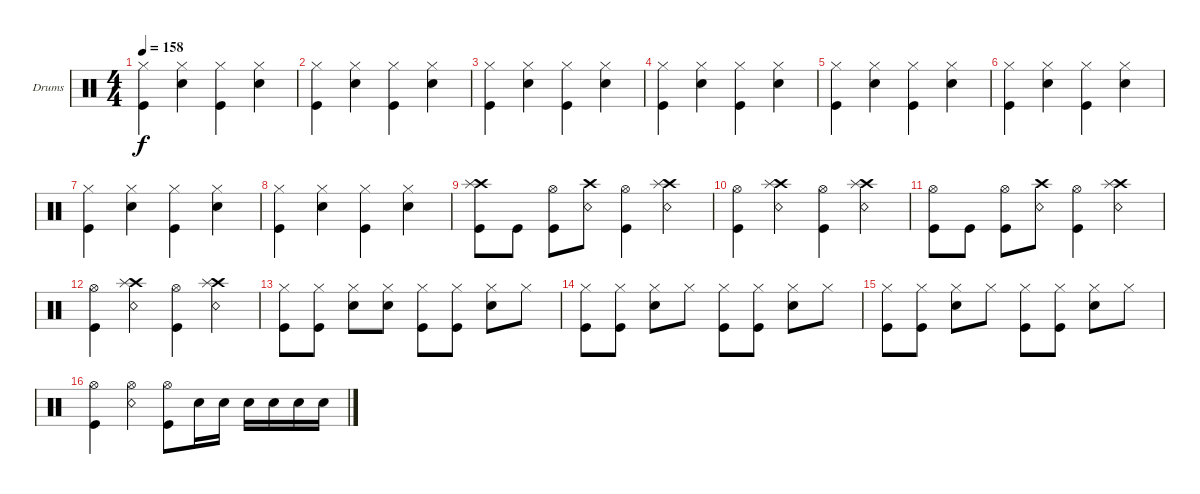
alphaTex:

\bracketExtendMode groupsimilarinstruments
\firstSystemTrackNameOrientation horizontal
\otherSystemsTrackNameOrientation horizontal
\track ("Drumkit" "Drums") {instrument percussion}
\staff {score}
\articulation defaults
\ts (4 4)
\tempo 158
\clef neutral
\ks c
("Hi-Hat (closed)" "Kick (hit)").4{dy f} ("Hi-Hat (closed)" "Snare (hit) 2").4 ("Hi-Hat (closed)" "Kick (hit)").4 ("Hi-Hat (closed)" "Snare (hit) 2").4 |
("Hi-Hat (closed)" "Kick (hit)").4 ("Hi-Hat (closed)" "Snare (hit) 2").4 ("Hi-Hat (closed)" "Kick (hit)").4 ("Hi-Hat (closed)" "Snare (hit) 2").4 |
("Hi-Hat (closed)" "Kick (hit)").4 ("Hi-Hat (closed)" "Snare (hit) 2").4 ("Hi-Hat (closed)" "Kick (hit)").4 ("Hi-Hat (closed)" "Snare (hit) 2").4 |
("Hi-Hat (closed)" "Kick (hit)").4 ("Hi-Hat (closed)" "Snare (hit) 2").4 ("Hi-Hat (closed)" "Kick (hit)").4 ("Hi-Hat (closed)" "Snare (hit) 2").4 |
("Hi-Hat (closed)" "Kick (hit)").4 ("Hi-Hat (closed)" "Snare (hit) 2").4 ("Hi-Hat (closed)" "Kick (hit)").4 ("Hi-Hat (closed)" "Snare (hit) 2").4 |
("Hi-Hat (closed)" "Kick (hit)").4 ("Hi-Hat (closed)" "Snare (hit) 2").4 ("Hi-Hat (closed)" "Kick (hit)").4 ("Hi-Hat (closed)" "Snare (hit) 2").4 |
("Hi-Hat (closed)" "Kick (hit)").4 ("Hi-Hat (closed)" "Snare (hit) 2").4 ("Hi-Hat (closed)" "Kick (hit)").4 ("Hi-Hat (closed)" "Snare (hit) 2").4 |
("Hi-Hat (closed)" "Kick (hit)").4 ("Hi-Hat (closed)" "Snare (hit) 2").4 ("Hi-Hat (closed)" "Kick (hit)").4 ("Hi-Hat (closed)" "Snare (hit) 2").4 |
("Kick (hit)" "Crash high (hit)" "Splash (hit)").8 "Kick (hit)".8 ("Hi-Hat (open)" "Kick (hit)").8 ("Snare (rim shot)" "Crash high (hit)").8 ("Hi-Hat (open)" "Kick (hit)").4 ("Snare (rim shot)" "Crash high (hit)" "Splash (hit)").4 |
("Hi-Hat (open)" "Kick (hit)").4 ("Snare (rim shot)" "Crash high (hit)" "Splash (hit)").4 ("Hi-Hat (open)" "Kick (hit)").4 ("Snare (rim shot)" "Crash high (hit)" "Splash (hit)").4 |
("Hi-Hat (open)" "Kick (hit)").8 "Kick (hit)".8 ("Hi-Hat (open)" "Kick (hit)").8 ("Snare (rim shot)" "Crash high (hit)").8 ("Hi-Hat (open)" "Kick (hit)").4 ("Snare (rim shot)" "Crash high (hit)" "Splash (hit)").4 |
("Hi-Hat (open)" "Kick (hit)").4 ("Snare (rim shot)" "Crash high (hit)" "Splash (hit)").4 ("Hi-Hat (open)" "Kick (hit)").4 ("Snare (rim shot)" "Crash high (hit)" "Splash (hit)").4 |
("Hi-Hat (closed)" "Kick (hit)").8 ("Hi-Hat (closed)" "Kick (hit)").8 ("Hi-Hat (closed)" "Snare (hit) 2").8 ("Hi-Hat (closed)" "Snare (hit) 2").8 ("Hi-Hat (closed)" "Kick (hit)").8 ("Hi-Hat (closed)" "Kick (hit)").8 ("Hi-Hat (closed)" "Snare (hit) 2").8 "Hi-Hat (closed)".8 |
("Hi-Hat (closed)" "Kick (hit)").8 ("Hi-Hat (closed)" "Kick (hit)").8 ("Hi-Hat (closed)" "Snare (hit) 2").8 "Hi-Hat (closed)".8 ("Hi-Hat (closed)" "Kick (hit)").8 ("Hi-Hat (closed)" "Kick (hit)").8 ("Hi-Hat (closed)" "Snare (hit) 2").8 "Hi-Hat (closed)".8 |
("Hi-Hat (closed)" "Kick (hit)").8 ("Hi-Hat (closed)" "Kick (hit)").8 ("Hi-Hat (closed)" "Snare (hit) 2").8 "Hi-Hat (closed)".8 ("Hi-Hat (closed)" "Kick (hit)").8 ("Hi-Hat (closed)" "Kick (hit)").8 ("Hi-Hat (closed)" "Snare (hit) 2").8 "Hi-Hat (closed)".8 |
("Hi-Hat (open)" "Kick (hit)").4 ("Hi-Hat (open)" "Snare (rim shot)").4 ("Hi-Hat (open)" "Kick (hit)").8 "Snare (hit) 2".16 "Snare (hit) 2".16 "Snare (hit) 2".16 "Snare (hit) 2".16 "Snare (hit) 2".16 "Snare (hit) 2".16
